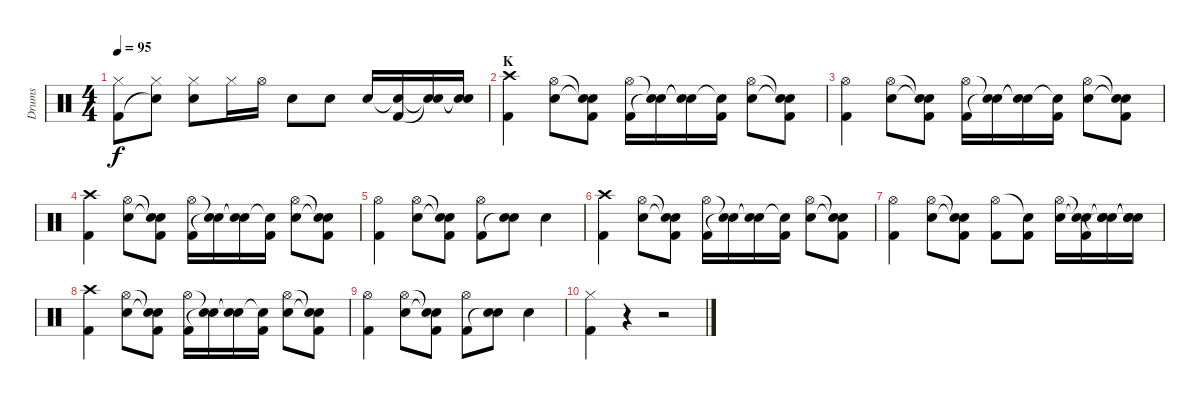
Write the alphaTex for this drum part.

\track ("Drums" "Drums") {instrument percussion}
\staff {score}
\articulation defaults
\ts (4 4)
\tempo 95
\clef neutral
\ks c
("Hi-Hat (closed)" "Kick (hit) 2").8{dy f} ("Hi-Hat (closed)" "Snare (hit)"{t}).8 ("Hi-Hat (closed)" "Snare (hit) 2").8 "Hi-Hat (closed)".16 "Hi-Hat (open)".16 "Snare (hit) 2".8 "Snare (hit) 2".8 "Snare (hit) 2".16 ("Snare (hit)"{t} "Kick (hit) 2").16 ("Snare (hit)"{t} "Snare (hit)"{t}).16 ("Snare (hit)"{t} "Snare (hit)"{t}).16 |
\section ("" "K")
("Crash high (hit)" "Kick (hit) 2").4 ("Hi-Hat (open)" "Snare (hit) 2").8 ("Snare (hit)"{t} "Snare (hit)"{t} "Kick (hit) 2").8 ("Hi-Hat (open)" "Kick (hit) 2").16 ("Snare (hit)"{t} "Snare (hit)"{t}).16 ("Snare (hit)"{t} "Snare (hit)"{t}).16 ("Snare (hit)"{t} "Kick (hit) 2").16 ("Hi-Hat (open)" "Snare (hit) 2").8 ("Snare (hit)"{t} "Snare (hit)"{t} "Kick (hit) 2").8 |
("Hi-Hat (open)" "Kick (hit) 2").4 ("Hi-Hat (open)" "Snare (hit) 2").8 ("Snare (hit)"{t} "Snare (hit)"{t} "Kick (hit) 2").8 ("Hi-Hat (open)" "Kick (hit) 2").16 ("Snare (hit)"{t} "Snare (hit)"{t}).16 ("Snare (hit)"{t} "Snare (hit)"{t}).16 ("Snare (hit)"{t} "Kick (hit) 2").16 ("Hi-Hat (open)" "Snare (hit) 2").8 ("Snare (hit)"{t} "Snare (hit)"{t} "Kick (hit) 2").8 |
("Crash high (hit)" "Kick (hit) 2").4 ("Hi-Hat (open)" "Snare (hit) 2").8 ("Snare (hit)"{t} "Snare (hit)"{t} "Kick (hit) 2").8 ("Hi-Hat (open)" "Kick (hit) 2").16 ("Snare (hit)"{t} "Snare (hit)"{t}).16 ("Snare (hit)"{t} "Snare (hit)"{t}).16 ("Snare (hit)"{t} "Kick (hit) 2").16 ("Hi-Hat (open)" "Snare (hit) 2").8 ("Snare (hit)"{t} "Snare (hit)"{t} "Kick (hit) 2").8 |
("Hi-Hat (open)" "Kick (hit) 2").4 ("Hi-Hat (open)" "Snare (hit) 2").8 ("Snare (hit)"{t} "Snare (hit)"{t} "Kick (hit) 2").8 ("Hi-Hat (open)" "Kick (hit) 2").8 ("Snare (hit) 2" "Snare (hit)"{t}).8 "Snare (hit) 2".4 |
("Crash high (hit)" "Kick (hit) 2").4 ("Hi-Hat (open)" "Snare (hit) 2").8 ("Snare (hit)"{t} "Snare (hit)"{t} "Kick (hit) 2").8 ("Hi-Hat (open)" "Kick (hit) 2").16 ("Snare (hit)"{t} "Snare (hit)"{t}).16 ("Snare (hit)"{t} "Snare (hit)"{t}).16 ("Snare (hit)"{t} "Kick (hit) 2").16 ("Hi-Hat (open)" "Snare (hit) 2").8 ("Snare (hit)"{t} "Snare (hit)"{t} "Kick (hit) 2").8 |
("Hi-Hat (open)" "Kick (hit) 2").4 ("Hi-Hat (open)" "Snare (hit) 2").8 ("Snare (hit)"{t} "Snare (hit)"{t} "Kick (hit) 2").8 ("Hi-Hat (open)" "Kick (hit) 2").8 ("Snare (hit)"{t} "Kick (hit) 2").8 ("Hi-Hat (open)" "Snare (hit) 2").16 ("Snare (hit)"{t} "Snare (hit)"{t} "Kick (hit) 2").16 ("Snare (hit)"{t} "Snare (hit)"{t} "Snare (hit)"{t}).16 ("Snare (hit)"{t} "Snare (hit)"{t} "Snare (hit)"{t}).16 |
("Crash high (hit)" "Kick (hit) 2").4 ("Hi-Hat (open)" "Snare (hit) 2").8 ("Snare (hit)"{t} "Snare (hit)"{t} "Kick (hit) 2").8 ("Hi-Hat (open)" "Kick (hit) 2").16 ("Snare (hit)"{t} "Snare (hit)"{t}).16 ("Snare (hit)"{t} "Snare (hit)"{t}).16 ("Snare (hit)"{t} "Kick (hit) 2").16 ("Hi-Hat (open)" "Snare (hit) 2").8 ("Snare (hit)"{t} "Snare (hit)"{t} "Kick (hit) 2").8 |
("Hi-Hat (open)" "Kick (hit) 2").4 ("Hi-Hat (open)" "Snare (hit) 2").8 ("Snare (hit)"{t} "Snare (hit)"{t} "Kick (hit) 2").8 ("Hi-Hat (open)" "Kick (hit) 2").8 ("Snare (hit) 2" "Snare (hit)"{t}).8 "Snare (hit) 2".4 |
("Hi-Hat (closed)" "Kick (hit) 2").4 r.4 r.2
